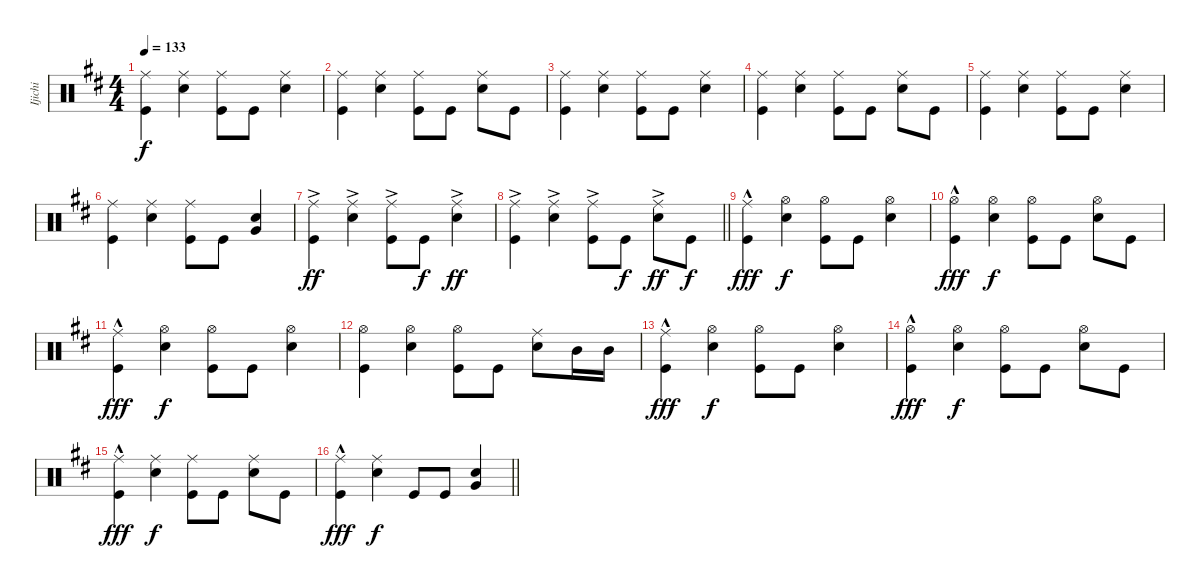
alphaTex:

\track ("Ijichi" "Ijichi") {instrument percussion}
\staff {score}
\articulation defaults
\ts (4 4)
\tempo 133
\clef neutral
\ks d
("Ride (middle)" "Kick (hit)").4{dy f} ("Ride (middle)" "Snare (hit) 2").4 ("Ride (middle)" "Kick (hit)").8 "Kick (hit)".8 ("Ride (middle)" "Snare (hit) 2").4 |
("Ride (middle)" "Kick (hit)").4 ("Ride (middle)" "Snare (hit) 2").4 ("Ride (middle)" "Kick (hit)").8 "Kick (hit)".8 ("Ride (middle)" "Snare (hit) 2").8 "Kick (hit)".8 |
("Ride (middle)" "Kick (hit)").4 ("Ride (middle)" "Snare (hit) 2").4 ("Ride (middle)" "Kick (hit)").8 "Kick (hit)".8 ("Ride (middle)" "Snare (hit) 2").4 |
("Ride (middle)" "Kick (hit)").4 ("Ride (middle)" "Snare (hit) 2").4 ("Ride (middle)" "Kick (hit)").8 "Kick (hit)".8 ("Ride (middle)" "Snare (hit) 2").8 "Kick (hit)".8 |
("Ride (middle)" "Kick (hit)").4 ("Ride (middle)" "Snare (hit) 2").4 ("Ride (middle)" "Kick (hit)").8 "Kick (hit)".8 ("Ride (middle)" "Snare (hit) 2").4 |
("Ride (middle)" "Kick (hit)").4 ("Ride (middle)" "Snare (hit) 2").4 ("Ride (middle)" "Kick (hit)").8 "Kick (hit)".8 ("Very Low Tom (hit)" "Snare (hit) 2").4 |
("Ride (middle)"{ac} "Kick (hit)").4{dy ff} ("Ride (middle)"{ac} "Snare (hit) 2").4 ("Ride (middle)"{ac} "Kick (hit)").8 "Kick (hit)".8{dy f} ("Ride (middle)"{ac} "Snare (hit) 2").4{dy ff} |
\barLineRight lightlight
("Ride (middle)"{ac} "Kick (hit)").4 ("Ride (middle)"{ac} "Snare (hit) 2").4 ("Ride (middle)"{ac} "Kick (hit)").8 "Kick (hit)".8{dy f} ("Ride (middle)"{ac} "Snare (hit) 2").8{dy ff} "Kick (hit)".8{dy f} |
("Ride (middle)"{hac} "Kick (hit)").4{dy fff} ("Hi-Hat (open)" "Snare (hit) 2").4{dy f} ("Hi-Hat (open)" "Kick (hit)").8 "Kick (hit)".8 ("Hi-Hat (open)" "Snare (hit) 2").4 |
("Hi-Hat (open)"{hac} "Kick (hit)").4{dy fff} ("Hi-Hat (open)" "Snare (hit) 2").4{dy f} ("Hi-Hat (open)" "Kick (hit)").8 "Kick (hit)".8 ("Hi-Hat (open)" "Snare (hit) 2").8 "Kick (hit)".8 |
("Ride (middle)"{hac} "Kick (hit)").4{dy fff} ("Hi-Hat (open)" "Snare (hit) 2").4{dy f} ("Hi-Hat (open)" "Kick (hit)").8 "Kick (hit)".8 ("Hi-Hat (open)" "Snare (hit) 2").4 |
("Hi-Hat (open)" "Kick (hit)").4 ("Hi-Hat (open)" "Snare (hit) 2").4 ("Hi-Hat (open)" "Kick (hit)").8 "Kick (hit)".8 ("Ride (middle)" "Snare (hit) 2").8 "Mid Tom (hit)".16 "Mid Tom (hit)".16 |
("Ride (middle)"{hac} "Kick (hit)").4{dy fff} ("Hi-Hat (open)" "Snare (hit) 2").4{dy f} ("Hi-Hat (open)" "Kick (hit)").8 "Kick (hit)".8 ("Hi-Hat (open)" "Snare (hit) 2").4 |
("Hi-Hat (open)"{hac} "Kick (hit)").4{dy fff} ("Hi-Hat (open)" "Snare (hit) 2").4{dy f} ("Hi-Hat (open)" "Kick (hit)").8 "Kick (hit)".8 ("Hi-Hat (open)" "Snare (hit) 2").8 "Kick (hit)".8 |
("Ride (middle)"{hac} "Kick (hit)").4{dy fff} ("Ride (middle)" "Snare (hit) 2").4{dy f} ("Ride (middle)" "Kick (hit)").8 "Kick (hit)".8 ("Ride (middle)" "Snare (hit) 2").8 "Kick (hit)".8 |
\barLineRight lightlight
("Ride (middle)"{hac} "Kick (hit)").4{dy fff} ("Ride (middle)" "Snare (hit) 2").4{dy f} "Kick (hit)".8 "Kick (hit)".8 ("Very Low Tom (hit)" "Snare (hit) 2").4
